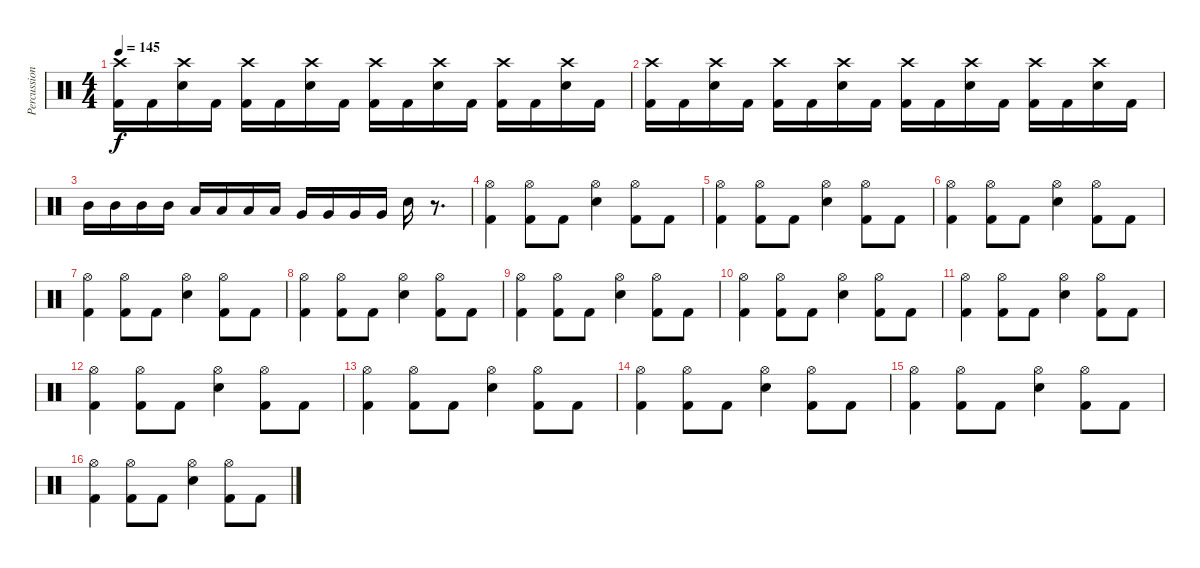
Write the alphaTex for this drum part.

\track ("Percussion" "Percussion") {instrument percussion}
\staff {score}
\articulation defaults
\ts (4 4)
\tempo 145
\clef neutral
\ks c
("Kick (hit) 2" "Crash high (hit)").16{dy f} "Kick (hit) 2".16 ("Electric Snare (hit)" "Crash high (hit)").16 "Kick (hit) 2".16 ("Kick (hit) 2" "Crash high (hit)").16 "Kick (hit) 2".16 ("Electric Snare (hit)" "Crash high (hit)").16 "Kick (hit) 2".16 ("Kick (hit) 2" "Crash high (hit)").16 "Kick (hit) 2".16 ("Electric Snare (hit)" "Crash high (hit)").16 "Kick (hit) 2".16 ("Kick (hit) 2" "Crash high (hit)").16 "Kick (hit) 2".16 ("Electric Snare (hit)" "Crash high (hit)").16 "Kick (hit) 2".16 |
("Kick (hit) 2" "Crash high (hit)").16 "Kick (hit) 2".16 ("Electric Snare (hit)" "Crash high (hit)").16 "Kick (hit) 2".16 ("Kick (hit) 2" "Crash high (hit)").16 "Kick (hit) 2".16 ("Electric Snare (hit)" "Crash high (hit)").16 "Kick (hit) 2".16 ("Kick (hit) 2" "Crash high (hit)").16 "Kick (hit) 2".16 ("Electric Snare (hit)" "Crash high (hit)").16 "Kick (hit) 2".16 ("Kick (hit) 2" "Crash high (hit)").16 "Kick (hit) 2".16 ("Electric Snare (hit)" "Crash high (hit)").16 "Kick (hit) 2".16 |
"Mid Tom (hit)".16 "Mid Tom (hit)".16 "Mid Tom (hit)".16 "Mid Tom (hit)".16 "Low Tom (hit)".16 "Low Tom (hit)".16 "Low Tom (hit)".16 "Low Tom (hit)".16 "Very Low Tom (hit)".16 "Very Low Tom (hit)".16 "Very Low Tom (hit)".16 "Very Low Tom (hit)".16 "Electric Snare (hit)".16 r.8{d} |
("Hi-Hat (open)" "Kick (hit) 2").4{volume 16} ("Hi-Hat (open)" "Kick (hit) 2").8 "Kick (hit) 2".8 ("Hi-Hat (open)" "Electric Snare (hit)").4 ("Hi-Hat (open)" "Kick (hit) 2").8 "Kick (hit) 2".8 |
("Hi-Hat (open)" "Kick (hit) 2").4 ("Hi-Hat (open)" "Kick (hit) 2").8 "Kick (hit) 2".8 ("Hi-Hat (open)" "Electric Snare (hit)").4 ("Hi-Hat (open)" "Kick (hit) 2").8 "Kick (hit) 2".8 |
("Hi-Hat (open)" "Kick (hit) 2").4 ("Hi-Hat (open)" "Kick (hit) 2").8 "Kick (hit) 2".8 ("Hi-Hat (open)" "Electric Snare (hit)").4 ("Hi-Hat (open)" "Kick (hit) 2").8 "Kick (hit) 2".8 |
("Hi-Hat (open)" "Kick (hit) 2").4 ("Hi-Hat (open)" "Kick (hit) 2").8 "Kick (hit) 2".8 ("Hi-Hat (open)" "Electric Snare (hit)").4 ("Hi-Hat (open)" "Kick (hit) 2").8 "Kick (hit) 2".8 |
("Hi-Hat (open)" "Kick (hit) 2").4 ("Hi-Hat (open)" "Kick (hit) 2").8 "Kick (hit) 2".8 ("Hi-Hat (open)" "Electric Snare (hit)").4 ("Hi-Hat (open)" "Kick (hit) 2").8 "Kick (hit) 2".8 |
("Hi-Hat (open)" "Kick (hit) 2").4 ("Hi-Hat (open)" "Kick (hit) 2").8 "Kick (hit) 2".8 ("Hi-Hat (open)" "Electric Snare (hit)").4 ("Hi-Hat (open)" "Kick (hit) 2").8 "Kick (hit) 2".8 |
("Hi-Hat (open)" "Kick (hit) 2").4 ("Hi-Hat (open)" "Kick (hit) 2").8 "Kick (hit) 2".8 ("Hi-Hat (open)" "Electric Snare (hit)").4 ("Hi-Hat (open)" "Kick (hit) 2").8 "Kick (hit) 2".8 |
("Hi-Hat (open)" "Kick (hit) 2").4 ("Hi-Hat (open)" "Kick (hit) 2").8 "Kick (hit) 2".8 ("Hi-Hat (open)" "Electric Snare (hit)").4 ("Hi-Hat (open)" "Kick (hit) 2").8 "Kick (hit) 2".8 |
("Hi-Hat (open)" "Kick (hit) 2").4 ("Hi-Hat (open)" "Kick (hit) 2").8 "Kick (hit) 2".8 ("Hi-Hat (open)" "Electric Snare (hit)").4 ("Hi-Hat (open)" "Kick (hit) 2").8 "Kick (hit) 2".8 |
("Hi-Hat (open)" "Kick (hit) 2").4 ("Hi-Hat (open)" "Kick (hit) 2").8 "Kick (hit) 2".8 ("Hi-Hat (open)" "Electric Snare (hit)").4 ("Hi-Hat (open)" "Kick (hit) 2").8 "Kick (hit) 2".8 |
("Hi-Hat (open)" "Kick (hit) 2").4 ("Hi-Hat (open)" "Kick (hit) 2").8 "Kick (hit) 2".8 ("Hi-Hat (open)" "Electric Snare (hit)").4 ("Hi-Hat (open)" "Kick (hit) 2").8 "Kick (hit) 2".8 |
("Hi-Hat (open)" "Kick (hit) 2").4 ("Hi-Hat (open)" "Kick (hit) 2").8 "Kick (hit) 2".8 ("Hi-Hat (open)" "Electric Snare (hit)").4 ("Hi-Hat (open)" "Kick (hit) 2").8 "Kick (hit) 2".8 |
("Hi-Hat (open)" "Kick (hit) 2").4 ("Hi-Hat (open)" "Kick (hit) 2").8 "Kick (hit) 2".8 ("Hi-Hat (open)" "Electric Snare (hit)").4 ("Hi-Hat (open)" "Kick (hit) 2").8 "Kick (hit) 2".8
